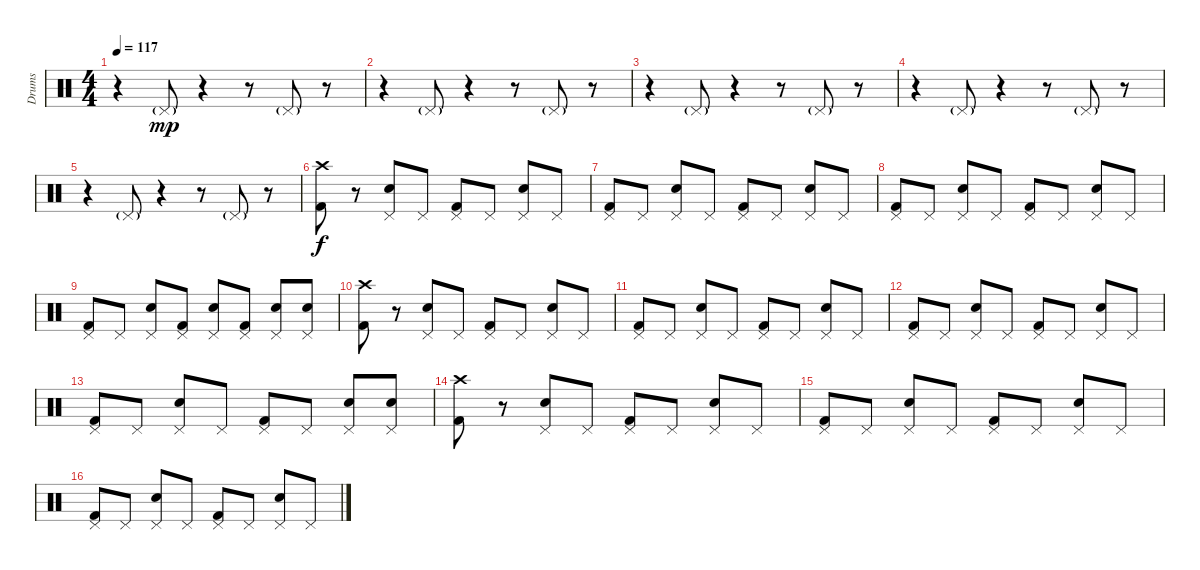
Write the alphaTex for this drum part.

\track ("Drums" "Drums") {instrument percussion}
\staff {score}
\articulation defaults
\ts (4 4)
\tempo 117
\clef neutral
\ks c
r.4{dy mp} "Pedal Hi-Hat (hit)"{g}.8 r.4 r.8 "Pedal Hi-Hat (hit)"{g}.8 r.8 |
r.4 "Pedal Hi-Hat (hit)"{g}.8 r.4 r.8 "Pedal Hi-Hat (hit)"{g}.8 r.8 |
r.4 "Pedal Hi-Hat (hit)"{g}.8 r.4 r.8 "Pedal Hi-Hat (hit)"{g}.8 r.8 |
r.4 "Pedal Hi-Hat (hit)"{g}.8 r.4 r.8 "Pedal Hi-Hat (hit)"{g}.8 r.8 |
r.4 "Pedal Hi-Hat (hit)"{g}.8 r.4 r.8 "Pedal Hi-Hat (hit)"{g}.8 r.8 |
("Crash high (hit)" "Kick (hit) 2").8{dy f} r.8 ("Pedal Hi-Hat (hit)" "Snare (hit) 2").8 "Pedal Hi-Hat (hit)".8 ("Pedal Hi-Hat (hit)" "Kick (hit) 2").8 "Pedal Hi-Hat (hit)".8 ("Pedal Hi-Hat (hit)" "Snare (hit) 2").8 "Pedal Hi-Hat (hit)".8 |
("Pedal Hi-Hat (hit)" "Kick (hit) 2").8 "Pedal Hi-Hat (hit)".8 ("Pedal Hi-Hat (hit)" "Snare (hit) 2").8 "Pedal Hi-Hat (hit)".8 ("Pedal Hi-Hat (hit)" "Kick (hit) 2").8 "Pedal Hi-Hat (hit)".8 ("Pedal Hi-Hat (hit)" "Snare (hit) 2").8 "Pedal Hi-Hat (hit)".8 |
("Pedal Hi-Hat (hit)" "Kick (hit) 2").8 "Pedal Hi-Hat (hit)".8 ("Pedal Hi-Hat (hit)" "Snare (hit) 2").8 "Pedal Hi-Hat (hit)".8 ("Pedal Hi-Hat (hit)" "Kick (hit) 2").8 "Pedal Hi-Hat (hit)".8 ("Pedal Hi-Hat (hit)" "Snare (hit) 2").8 "Pedal Hi-Hat (hit)".8 |
("Pedal Hi-Hat (hit)" "Kick (hit) 2").8 "Pedal Hi-Hat (hit)".8 ("Pedal Hi-Hat (hit)" "Snare (hit) 2").8 ("Pedal Hi-Hat (hit)" "Kick (hit) 2").8 ("Pedal Hi-Hat (hit)" "Snare (hit) 2").8 ("Pedal Hi-Hat (hit)" "Kick (hit) 2").8 ("Pedal Hi-Hat (hit)" "Snare (hit) 2").8 ("Pedal Hi-Hat (hit)" "Snare (hit) 2").8 |
("Crash high (hit)" "Kick (hit) 2").8 r.8 ("Pedal Hi-Hat (hit)" "Snare (hit) 2").8 "Pedal Hi-Hat (hit)".8 ("Pedal Hi-Hat (hit)" "Kick (hit) 2").8 "Pedal Hi-Hat (hit)".8 ("Pedal Hi-Hat (hit)" "Snare (hit) 2").8 "Pedal Hi-Hat (hit)".8 |
("Pedal Hi-Hat (hit)" "Kick (hit) 2").8 "Pedal Hi-Hat (hit)".8 ("Pedal Hi-Hat (hit)" "Snare (hit) 2").8 "Pedal Hi-Hat (hit)".8 ("Pedal Hi-Hat (hit)" "Kick (hit) 2").8 "Pedal Hi-Hat (hit)".8 ("Pedal Hi-Hat (hit)" "Snare (hit) 2").8 "Pedal Hi-Hat (hit)".8 |
("Pedal Hi-Hat (hit)" "Kick (hit) 2").8 "Pedal Hi-Hat (hit)".8 ("Pedal Hi-Hat (hit)" "Snare (hit) 2").8 "Pedal Hi-Hat (hit)".8 ("Pedal Hi-Hat (hit)" "Kick (hit) 2").8 "Pedal Hi-Hat (hit)".8 ("Pedal Hi-Hat (hit)" "Snare (hit) 2").8 "Pedal Hi-Hat (hit)".8 |
("Pedal Hi-Hat (hit)" "Kick (hit) 2").8 "Pedal Hi-Hat (hit)".8 ("Pedal Hi-Hat (hit)" "Snare (hit) 2").8 "Pedal Hi-Hat (hit)".8 ("Pedal Hi-Hat (hit)" "Kick (hit) 2").8 "Pedal Hi-Hat (hit)".8 ("Pedal Hi-Hat (hit)" "Snare (hit) 2").8 ("Pedal Hi-Hat (hit)" "Snare (hit) 2").8 |
("Crash high (hit)" "Kick (hit) 2").8 r.8 ("Pedal Hi-Hat (hit)" "Snare (hit) 2").8 "Pedal Hi-Hat (hit)".8 ("Pedal Hi-Hat (hit)" "Kick (hit) 2").8 "Pedal Hi-Hat (hit)".8 ("Pedal Hi-Hat (hit)" "Snare (hit) 2").8 "Pedal Hi-Hat (hit)".8 |
("Pedal Hi-Hat (hit)" "Kick (hit) 2").8 "Pedal Hi-Hat (hit)".8 ("Pedal Hi-Hat (hit)" "Snare (hit) 2").8 "Pedal Hi-Hat (hit)".8 ("Pedal Hi-Hat (hit)" "Kick (hit) 2").8 "Pedal Hi-Hat (hit)".8 ("Pedal Hi-Hat (hit)" "Snare (hit) 2").8 "Pedal Hi-Hat (hit)".8 |
("Pedal Hi-Hat (hit)" "Kick (hit) 2").8 "Pedal Hi-Hat (hit)".8 ("Pedal Hi-Hat (hit)" "Snare (hit) 2").8 "Pedal Hi-Hat (hit)".8 ("Pedal Hi-Hat (hit)" "Kick (hit) 2").8 "Pedal Hi-Hat (hit)".8 ("Pedal Hi-Hat (hit)" "Snare (hit) 2").8 "Pedal Hi-Hat (hit)".8
